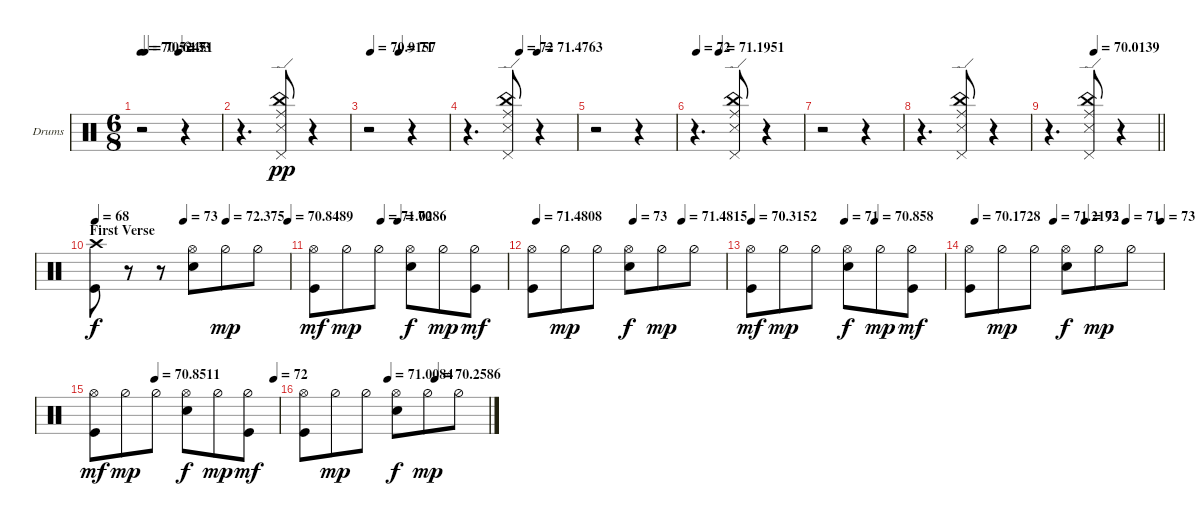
\bracketExtendMode groupsimilarinstruments
\firstSystemTrackNameOrientation horizontal
\otherSystemsTrackNameOrientation horizontal
\track ("Drums" "Drums") {instrument percussion}
\staff {score}
\articulation defaults
\ts (6 8)
\tempo
70.5245
\tempo (70.6133 0.05)
\tempo (71 0.475)
\accidentals auto
\clef neutral
\ottava regular
\simile none
\ks c
r.2{dy pp} r.4 |
r.4{d} ("Ride (edge)" "Snare (side stick) 3" "China (hit)" "Pedal Hi-Hat (hit)").8 r.4 |
\tempo (70.9157 0.03125)
\tempo (71 0.3875)
r.2 r.4 |
\tempo (72 0.48125)
\tempo (71.4763 0.64375)
r.4{d} ("Ride (edge)" "Snare (side stick) 3" "China (hit)" "Pedal Hi-Hat (hit)").8 r.4 |
r.2 r.4 |
\tempo (72 0.025)
\tempo (71.1951 0.23125)
r.4{d} ("Ride (edge)" "Snare (side stick) 3" "China (hit)" "Pedal Hi-Hat (hit)").8 r.4 |
r.2 r.4 |
r.4{d} ("Ride (edge)" "Snare (side stick) 3" "China (hit)" "Pedal Hi-Hat (hit)").8 r.4 |
\tempo (70.0139 0.41875)
\barLineRight lightlight
r.4{d} ("Ride (edge)" "Snare (side stick) 3" "China (hit)" "Pedal Hi-Hat (hit)").8 r.4 |
\section ("" "First Verse")
\tempo 68
\tempo (73 0.45625)
\tempo (72.375 0.675)
\tempo (70.8489 0.99375)
("Crash high (hit)" "Kick (hit)").8{dy f} r.8 r.8 ("Hi-Hat (open)" "Snare (hit) 2").8 "Hi-Hat (half)".8{dy mp} "Hi-Hat (half)".8 |
\tempo (71.0286 0.35)
\tempo (70 0.4375)
("Hi-Hat (open)" "Kick (hit)").8{dy mf} "Hi-Hat (half)".8{dy mp} "Hi-Hat (half)".8 ("Hi-Hat (open)" "Snare (hit) 2").8{dy f} "Hi-Hat (half)".8{dy mp} ("Hi-Hat (half)" "Kick (hit)").8{dy mf} |
\tempo (71.4808 0.025)
\tempo (73 0.525)
\tempo (71.4815 0.775)
("Hi-Hat (open)" "Kick (hit)").8 "Hi-Hat (half)".8{dy mp} "Hi-Hat (half)".8 ("Hi-Hat (open)" "Snare (hit) 2").8{dy f} "Hi-Hat (half)".8{dy mp} "Hi-Hat (half)".8 |
\tempo (70.3152 0.00625)
\tempo (71 0.4875)
\tempo (70.858 0.64375)
("Hi-Hat (open)" "Kick (hit)").8{dy mf} "Hi-Hat (half)".8{dy mp} "Hi-Hat (half)".8 ("Hi-Hat (open)" "Snare (hit) 2").8{dy f} "Hi-Hat (half)".8{dy mp} ("Kick (hit)" "Hi-Hat (half)").8{dy mf} |
\tempo (70.1728 0.03125)
\tempo (71.2193 0.4375)
\tempo (72 0.6)
\tempo (71 0.8125)
\tempo (73 0.99375)
("Hi-Hat (open)" "Kick (hit)").8 "Hi-Hat (half)".8{dy mp} "Hi-Hat (half)".8 ("Hi-Hat (open)" "Snare (hit) 2").8{dy f} "Hi-Hat (half)".8{dy mp} "Hi-Hat (half)".8 |
\tempo (70.8511 0.33125)
\tempo (72 0.975)
("Hi-Hat (open)" "Kick (hit)").8{dy mf} "Hi-Hat (half)".8{dy mp} "Hi-Hat (half)".8 ("Hi-Hat (open)" "Snare (hit) 2").8{dy f} "Hi-Hat (half)".8{dy mp} ("Hi-Hat (half)" "Kick (hit)").8{dy mf} |
\tempo (71.0084 0.45625)
\tempo (70.2586 0.7125)
("Hi-Hat (open)" "Kick (hit)").8 "Hi-Hat (half)".8{dy mp} "Hi-Hat (half)".8 ("Hi-Hat (open)" "Snare (hit) 2").8{dy f} "Hi-Hat (half)".8{dy mp} "Hi-Hat (half)".8
